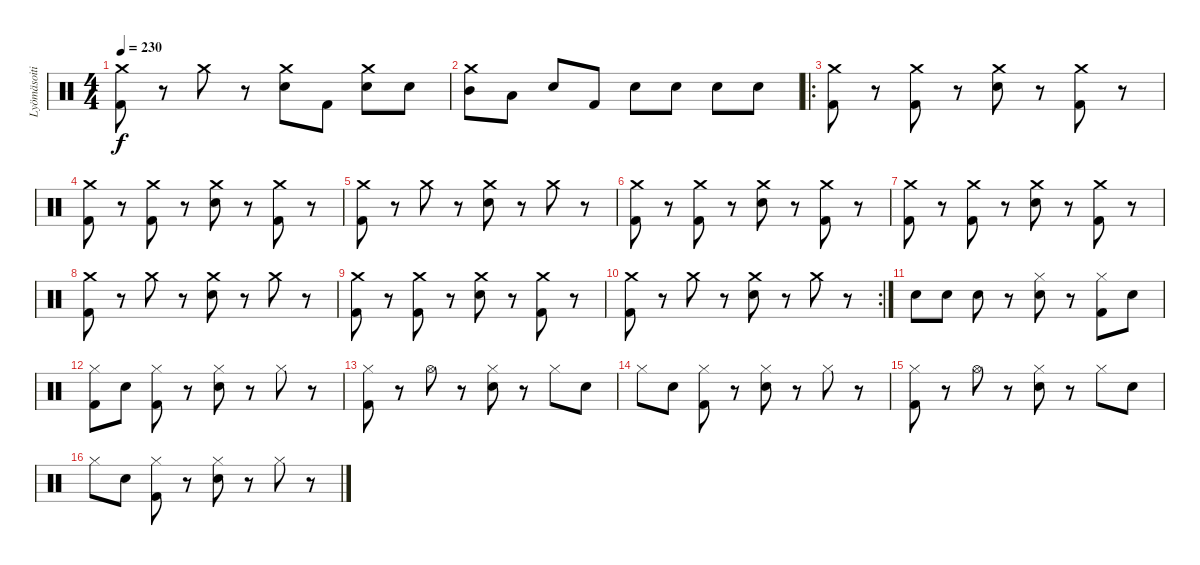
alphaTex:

\track ("Lyömäsoitin" "Lyömäsoiti") {instrument percussion}
\staff {score}
\articulation defaults
\ts (4 4)
\tempo 230
\clef neutral
\ks c
("Crash medium (hit)" "Kick (hit) 2").8{dy f} r.8 "Crash medium (hit)".8 r.8 ("Crash medium (hit)" "Electric Snare (hit)").8 "Kick (hit) 2".8 ("Crash medium (hit)" "Electric Snare (hit)").8 "Electric Snare (hit)".8 |
("Crash medium (hit)" "Mid Tom (hit)").8 "Low Tom (hit)".8 "Electric Snare (hit)".8 "Kick (hit) 2".8 "Electric Snare (hit)".8 "Electric Snare (hit)".8 "Electric Snare (hit)".8 "Electric Snare (hit)".8 |
\ro
("Crash medium (hit)" "Kick (hit) 2").8 r.8 ("Crash medium (hit)" "Kick (hit) 2").8 r.8 ("Crash medium (hit)" "Electric Snare (hit)").8 r.8 ("Crash medium (hit)" "Kick (hit) 2").8 r.8 |
("Crash medium (hit)" "Kick (hit) 2").8 r.8 ("Crash medium (hit)" "Kick (hit) 2").8 r.8 ("Crash medium (hit)" "Electric Snare (hit)").8 r.8 ("Crash medium (hit)" "Kick (hit) 2").8 r.8 |
("Crash medium (hit)" "Kick (hit) 2").8 r.8 "Crash medium (hit)".8 r.8 ("Crash medium (hit)" "Electric Snare (hit)").8 r.8 "Crash medium (hit)".8 r.8 |
("Crash medium (hit)" "Kick (hit) 2").8 r.8 ("Crash medium (hit)" "Kick (hit) 2").8 r.8 ("Crash medium (hit)" "Electric Snare (hit)").8 r.8 ("Crash medium (hit)" "Kick (hit) 2").8 r.8 |
("Crash medium (hit)" "Kick (hit) 2").8 r.8 ("Crash medium (hit)" "Kick (hit) 2").8 r.8 ("Crash medium (hit)" "Electric Snare (hit)").8 r.8 ("Crash medium (hit)" "Kick (hit) 2").8 r.8 |
("Crash medium (hit)" "Kick (hit) 2").8 r.8 "Crash medium (hit)".8 r.8 ("Crash medium (hit)" "Electric Snare (hit)").8 r.8 "Crash medium (hit)".8 r.8 |
("Crash medium (hit)" "Kick (hit) 2").8 r.8 ("Crash medium (hit)" "Kick (hit) 2").8 r.8 ("Crash medium (hit)" "Electric Snare (hit)").8 r.8 ("Crash medium (hit)" "Kick (hit) 2").8 r.8 |
\rc 2
("Crash medium (hit)" "Kick (hit) 2").8 r.8 "Crash medium (hit)".8 r.8 ("Crash medium (hit)" "Electric Snare (hit)").8 r.8 "Crash medium (hit)".8 r.8 |
"Electric Snare (hit)".8 "Electric Snare (hit)".8 "Electric Snare (hit)".8 r.8 ("Hi-Hat (closed)" "Electric Snare (hit)").8 r.8 ("Hi-Hat (closed)" "Kick (hit) 2").8 "Electric Snare (hit)".8 |
("Hi-Hat (closed)" "Kick (hit) 2").8 "Electric Snare (hit)".8 ("Hi-Hat (closed)" "Kick (hit) 2").8 r.8 ("Hi-Hat (closed)" "Electric Snare (hit)").8 r.8 "Hi-Hat (closed)".8 r.8 |
("Hi-Hat (closed)" "Kick (hit) 2").8 r.8 "Hi-Hat (open)".8 r.8 ("Hi-Hat (closed)" "Electric Snare (hit)").8 r.8 "Hi-Hat (closed)".8 "Electric Snare (hit)".8 |
"Hi-Hat (closed)".8 "Electric Snare (hit)".8 ("Hi-Hat (closed)" "Kick (hit) 2").8 r.8 ("Hi-Hat (closed)" "Electric Snare (hit)").8 r.8 "Hi-Hat (closed)".8 r.8 |
("Hi-Hat (closed)" "Kick (hit) 2").8 r.8 "Hi-Hat (open)".8 r.8 ("Hi-Hat (closed)" "Electric Snare (hit)").8 r.8 "Hi-Hat (closed)".8 "Electric Snare (hit)".8 |
"Hi-Hat (closed)".8 "Electric Snare (hit)".8 ("Hi-Hat (closed)" "Kick (hit) 2").8 r.8 ("Hi-Hat (closed)" "Electric Snare (hit)").8 r.8 "Hi-Hat (closed)".8 r.8
